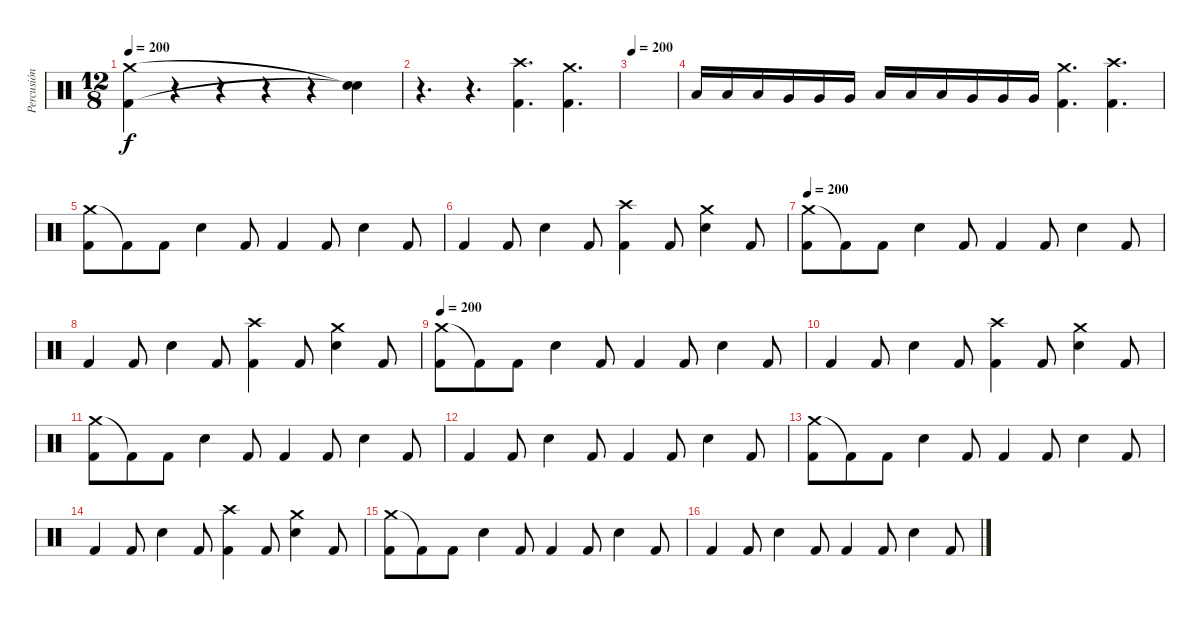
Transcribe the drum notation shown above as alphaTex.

\track ("Percusión" "Percusión") {instrument percussion}
\staff {score}
\articulation defaults
\ts (12 8)
\tempo 200
\clef neutral
\ks c
("Crash medium (hit)" "Kick (hit) 2").4{dy f} r.4 r.4 r.4 r.4 ("Snare (hit)"{t} "Snare (hit)"{t}).4 |
r.4{d} r.4{d} ("Crash high (hit)" "Kick (hit) 2").4{d} ("Crash medium (hit)" "Kick (hit) 2").4{d} |
\tempo 200
|
"Low Tom (hit)".16 "Low Tom (hit)".16 "Low Tom (hit)".16 "Very Low Tom (hit)".16 "Very Low Tom (hit)".16 "Very Low Tom (hit)".16 "Low Floor Tom (hit)".16 "Low Floor Tom (hit)".16 "Low Floor Tom (hit)".16 "Very Low Tom (hit)".16 "Very Low Tom (hit)".16 "Very Low Tom (hit)".16 ("Crash medium (hit)" "Kick (hit) 2").4{d} ("Crash high (hit)" "Kick (hit) 2").4{d} |
("Crash medium (hit)" "Kick (hit) 2").8 "Kick (hit) 2"{t}.8 "Kick (hit) 2".8 "Electric Snare (hit)".4 "Kick (hit) 2".8 "Kick (hit) 2".4 "Kick (hit) 2".8 "Electric Snare (hit)".4 "Kick (hit) 2".8 |
"Kick (hit) 2".4 "Kick (hit) 2".8 "Electric Snare (hit)".4 "Kick (hit) 2".8 ("Crash high (hit)" "Kick (hit) 2").4 "Kick (hit) 2".8 ("Crash medium (hit)" "Electric Snare (hit)").4 "Kick (hit) 2".8 |
\tempo 200
("Crash medium (hit)" "Kick (hit) 2").8 "Kick (hit) 2"{t}.8 "Kick (hit) 2".8 "Electric Snare (hit)".4 "Kick (hit) 2".8 "Kick (hit) 2".4 "Kick (hit) 2".8 "Electric Snare (hit)".4 "Kick (hit) 2".8 |
"Kick (hit) 2".4 "Kick (hit) 2".8 "Electric Snare (hit)".4 "Kick (hit) 2".8 ("Crash high (hit)" "Kick (hit) 2").4 "Kick (hit) 2".8 ("Crash medium (hit)" "Electric Snare (hit)").4 "Kick (hit) 2".8 |
\tempo 200
("Crash medium (hit)" "Kick (hit) 2").8 "Kick (hit) 2"{t}.8 "Kick (hit) 2".8 "Electric Snare (hit)".4 "Kick (hit) 2".8 "Kick (hit) 2".4 "Kick (hit) 2".8 "Electric Snare (hit)".4 "Kick (hit) 2".8 |
"Kick (hit) 2".4 "Kick (hit) 2".8 "Electric Snare (hit)".4 "Kick (hit) 2".8 ("Crash high (hit)" "Kick (hit) 2").4 "Kick (hit) 2".8 ("Crash medium (hit)" "Electric Snare (hit)").4 "Kick (hit) 2".8 |
("Crash medium (hit)" "Kick (hit) 2").8 "Kick (hit) 2"{t}.8 "Kick (hit) 2".8 "Electric Snare (hit)".4 "Kick (hit) 2".8 "Kick (hit) 2".4 "Kick (hit) 2".8 "Electric Snare (hit)".4 "Kick (hit) 2".8 |
"Kick (hit) 2".4 "Kick (hit) 2".8 "Electric Snare (hit)".4 "Kick (hit) 2".8 "Kick (hit) 2".4 "Kick (hit) 2".8 "Electric Snare (hit)".4 "Kick (hit) 2".8 |
("Crash medium (hit)" "Kick (hit) 2").8 "Kick (hit) 2"{t}.8 "Kick (hit) 2".8 "Electric Snare (hit)".4 "Kick (hit) 2".8 "Kick (hit) 2".4 "Kick (hit) 2".8 "Electric Snare (hit)".4 "Kick (hit) 2".8 |
"Kick (hit) 2".4 "Kick (hit) 2".8 "Electric Snare (hit)".4 "Kick (hit) 2".8 ("Crash high (hit)" "Kick (hit) 2").4 "Kick (hit) 2".8 ("Crash medium (hit)" "Electric Snare (hit)").4 "Kick (hit) 2".8 |
("Crash medium (hit)" "Kick (hit) 2").8 "Kick (hit) 2"{t}.8 "Kick (hit) 2".8 "Electric Snare (hit)".4 "Kick (hit) 2".8 "Kick (hit) 2".4 "Kick (hit) 2".8 "Electric Snare (hit)".4 "Kick (hit) 2".8 |
"Kick (hit) 2".4 "Kick (hit) 2".8 "Electric Snare (hit)".4 "Kick (hit) 2".8 "Kick (hit) 2".4 "Kick (hit) 2".8 "Electric Snare (hit)".4 "Kick (hit) 2".8
